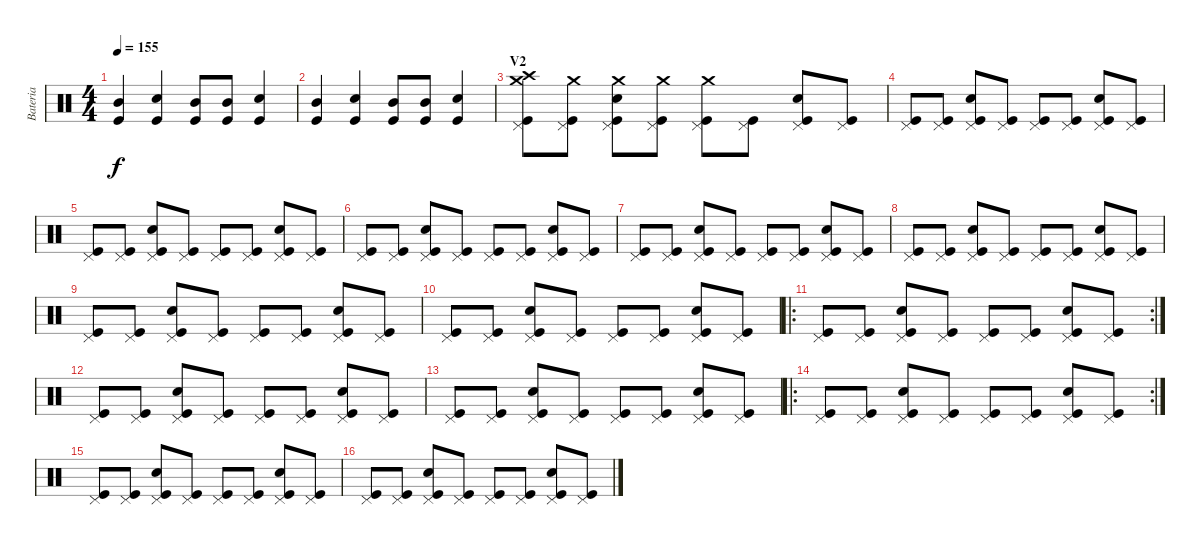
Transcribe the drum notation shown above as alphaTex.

\track ("Bateria" "Bateria") {instrument percussion}
\staff {score}
\articulation defaults
\ts (4 4)
\tempo 155
\clef neutral
\ks c
("Mid Tom (hit)" "Kick (hit)").4{dy f} ("Electric Snare (hit)" "Kick (hit)").4 ("Mid Tom (hit)" "Kick (hit)").8 ("Mid Tom (hit)" "Kick (hit)").8 ("Electric Snare (hit)" "Kick (hit)").4 |
("Mid Tom (hit)" "Kick (hit)").4 ("Electric Snare (hit)" "Kick (hit)").4 ("Mid Tom (hit)" "Kick (hit)").8 ("Mid Tom (hit)" "Kick (hit)").8 ("Electric Snare (hit)" "Kick (hit)").4 |
\section ("" "V2")
("Pedal Hi-Hat (hit)" "Crash medium (hit)" "Crash high (hit)" "Kick (hit)").8 ("Pedal Hi-Hat (hit)" "Crash medium (hit)" "Kick (hit)").8 ("Pedal Hi-Hat (hit)" "Crash medium (hit)" "Electric Snare (hit)" "Kick (hit)").8 ("Pedal Hi-Hat (hit)" "Crash medium (hit)" "Kick (hit)").8 ("Pedal Hi-Hat (hit)" "Crash medium (hit)" "Kick (hit)").8 ("Pedal Hi-Hat (hit)" "Kick (hit)").8 ("Pedal Hi-Hat (hit)" "Electric Snare (hit)" "Kick (hit)").8 ("Pedal Hi-Hat (hit)" "Kick (hit)").8 |
("Pedal Hi-Hat (hit)" "Kick (hit)").8 ("Pedal Hi-Hat (hit)" "Kick (hit)").8 ("Pedal Hi-Hat (hit)" "Electric Snare (hit)" "Kick (hit)").8 ("Pedal Hi-Hat (hit)" "Kick (hit)").8 ("Pedal Hi-Hat (hit)" "Kick (hit)").8 ("Pedal Hi-Hat (hit)" "Kick (hit)").8 ("Pedal Hi-Hat (hit)" "Electric Snare (hit)" "Kick (hit)").8 ("Pedal Hi-Hat (hit)" "Kick (hit)").8 |
("Pedal Hi-Hat (hit)" "Kick (hit)").8 ("Pedal Hi-Hat (hit)" "Kick (hit)").8 ("Pedal Hi-Hat (hit)" "Electric Snare (hit)" "Kick (hit)").8 ("Pedal Hi-Hat (hit)" "Kick (hit)").8 ("Pedal Hi-Hat (hit)" "Kick (hit)").8 ("Pedal Hi-Hat (hit)" "Kick (hit)").8 ("Pedal Hi-Hat (hit)" "Electric Snare (hit)" "Kick (hit)").8 ("Pedal Hi-Hat (hit)" "Kick (hit)").8 |
("Pedal Hi-Hat (hit)" "Kick (hit)").8 ("Pedal Hi-Hat (hit)" "Kick (hit)").8 ("Pedal Hi-Hat (hit)" "Electric Snare (hit)" "Kick (hit)").8 ("Pedal Hi-Hat (hit)" "Kick (hit)").8 ("Pedal Hi-Hat (hit)" "Kick (hit)").8 ("Pedal Hi-Hat (hit)" "Kick (hit)").8 ("Pedal Hi-Hat (hit)" "Electric Snare (hit)" "Kick (hit)").8 ("Pedal Hi-Hat (hit)" "Kick (hit)").8 |
("Pedal Hi-Hat (hit)" "Kick (hit)").8 ("Pedal Hi-Hat (hit)" "Kick (hit)").8 ("Pedal Hi-Hat (hit)" "Electric Snare (hit)" "Kick (hit)").8 ("Pedal Hi-Hat (hit)" "Kick (hit)").8 ("Pedal Hi-Hat (hit)" "Kick (hit)").8 ("Pedal Hi-Hat (hit)" "Kick (hit)").8 ("Pedal Hi-Hat (hit)" "Electric Snare (hit)" "Kick (hit)").8 ("Pedal Hi-Hat (hit)" "Kick (hit)").8 |
("Pedal Hi-Hat (hit)" "Kick (hit)").8 ("Pedal Hi-Hat (hit)" "Kick (hit)").8 ("Pedal Hi-Hat (hit)" "Electric Snare (hit)" "Kick (hit)").8 ("Pedal Hi-Hat (hit)" "Kick (hit)").8 ("Pedal Hi-Hat (hit)" "Kick (hit)").8 ("Pedal Hi-Hat (hit)" "Kick (hit)").8 ("Pedal Hi-Hat (hit)" "Electric Snare (hit)" "Kick (hit)").8 ("Pedal Hi-Hat (hit)" "Kick (hit)").8 |
("Pedal Hi-Hat (hit)" "Kick (hit)").8 ("Pedal Hi-Hat (hit)" "Kick (hit)").8 ("Pedal Hi-Hat (hit)" "Electric Snare (hit)" "Kick (hit)").8 ("Pedal Hi-Hat (hit)" "Kick (hit)").8 ("Pedal Hi-Hat (hit)" "Kick (hit)").8 ("Pedal Hi-Hat (hit)" "Kick (hit)").8 ("Pedal Hi-Hat (hit)" "Electric Snare (hit)" "Kick (hit)").8 ("Pedal Hi-Hat (hit)" "Kick (hit)").8 |
("Pedal Hi-Hat (hit)" "Kick (hit)").8 ("Pedal Hi-Hat (hit)" "Kick (hit)").8 ("Pedal Hi-Hat (hit)" "Electric Snare (hit)" "Kick (hit)").8 ("Pedal Hi-Hat (hit)" "Kick (hit)").8 ("Pedal Hi-Hat (hit)" "Kick (hit)").8 ("Pedal Hi-Hat (hit)" "Kick (hit)").8 ("Pedal Hi-Hat (hit)" "Electric Snare (hit)" "Kick (hit)").8 ("Pedal Hi-Hat (hit)" "Kick (hit)").8 |
\ro
\rc 2
("Pedal Hi-Hat (hit)" "Kick (hit)").8 ("Pedal Hi-Hat (hit)" "Kick (hit)").8 ("Pedal Hi-Hat (hit)" "Electric Snare (hit)" "Kick (hit)").8 ("Pedal Hi-Hat (hit)" "Kick (hit)").8 ("Pedal Hi-Hat (hit)" "Kick (hit)").8 ("Pedal Hi-Hat (hit)" "Kick (hit)").8 ("Pedal Hi-Hat (hit)" "Electric Snare (hit)" "Kick (hit)").8 ("Pedal Hi-Hat (hit)" "Kick (hit)").8 |
("Pedal Hi-Hat (hit)" "Kick (hit)").8 ("Pedal Hi-Hat (hit)" "Kick (hit)").8 ("Pedal Hi-Hat (hit)" "Electric Snare (hit)" "Kick (hit)").8 ("Pedal Hi-Hat (hit)" "Kick (hit)").8 ("Pedal Hi-Hat (hit)" "Kick (hit)").8 ("Pedal Hi-Hat (hit)" "Kick (hit)").8 ("Pedal Hi-Hat (hit)" "Electric Snare (hit)" "Kick (hit)").8 ("Pedal Hi-Hat (hit)" "Kick (hit)").8 |
("Pedal Hi-Hat (hit)" "Kick (hit)").8 ("Pedal Hi-Hat (hit)" "Kick (hit)").8 ("Pedal Hi-Hat (hit)" "Electric Snare (hit)" "Kick (hit)").8 ("Pedal Hi-Hat (hit)" "Kick (hit)").8 ("Pedal Hi-Hat (hit)" "Kick (hit)").8 ("Pedal Hi-Hat (hit)" "Kick (hit)").8 ("Pedal Hi-Hat (hit)" "Electric Snare (hit)" "Kick (hit)").8 ("Pedal Hi-Hat (hit)" "Kick (hit)").8 |
\ro
\rc 2
("Pedal Hi-Hat (hit)" "Kick (hit)").8 ("Pedal Hi-Hat (hit)" "Kick (hit)").8 ("Pedal Hi-Hat (hit)" "Electric Snare (hit)" "Kick (hit)").8 ("Pedal Hi-Hat (hit)" "Kick (hit)").8 ("Pedal Hi-Hat (hit)" "Kick (hit)").8 ("Pedal Hi-Hat (hit)" "Kick (hit)").8 ("Pedal Hi-Hat (hit)" "Electric Snare (hit)" "Kick (hit)").8 ("Pedal Hi-Hat (hit)" "Kick (hit)").8 |
("Pedal Hi-Hat (hit)" "Kick (hit)").8 ("Pedal Hi-Hat (hit)" "Kick (hit)").8 ("Pedal Hi-Hat (hit)" "Electric Snare (hit)" "Kick (hit)").8 ("Pedal Hi-Hat (hit)" "Kick (hit)").8 ("Pedal Hi-Hat (hit)" "Kick (hit)").8 ("Pedal Hi-Hat (hit)" "Kick (hit)").8 ("Pedal Hi-Hat (hit)" "Electric Snare (hit)" "Kick (hit)").8 ("Pedal Hi-Hat (hit)" "Kick (hit)").8 |
("Pedal Hi-Hat (hit)" "Kick (hit)").8 ("Pedal Hi-Hat (hit)" "Kick (hit)").8 ("Pedal Hi-Hat (hit)" "Electric Snare (hit)" "Kick (hit)").8 ("Pedal Hi-Hat (hit)" "Kick (hit)").8 ("Pedal Hi-Hat (hit)" "Kick (hit)").8 ("Pedal Hi-Hat (hit)" "Kick (hit)").8 ("Pedal Hi-Hat (hit)" "Electric Snare (hit)" "Kick (hit)").8 ("Pedal Hi-Hat (hit)" "Kick (hit)").8
